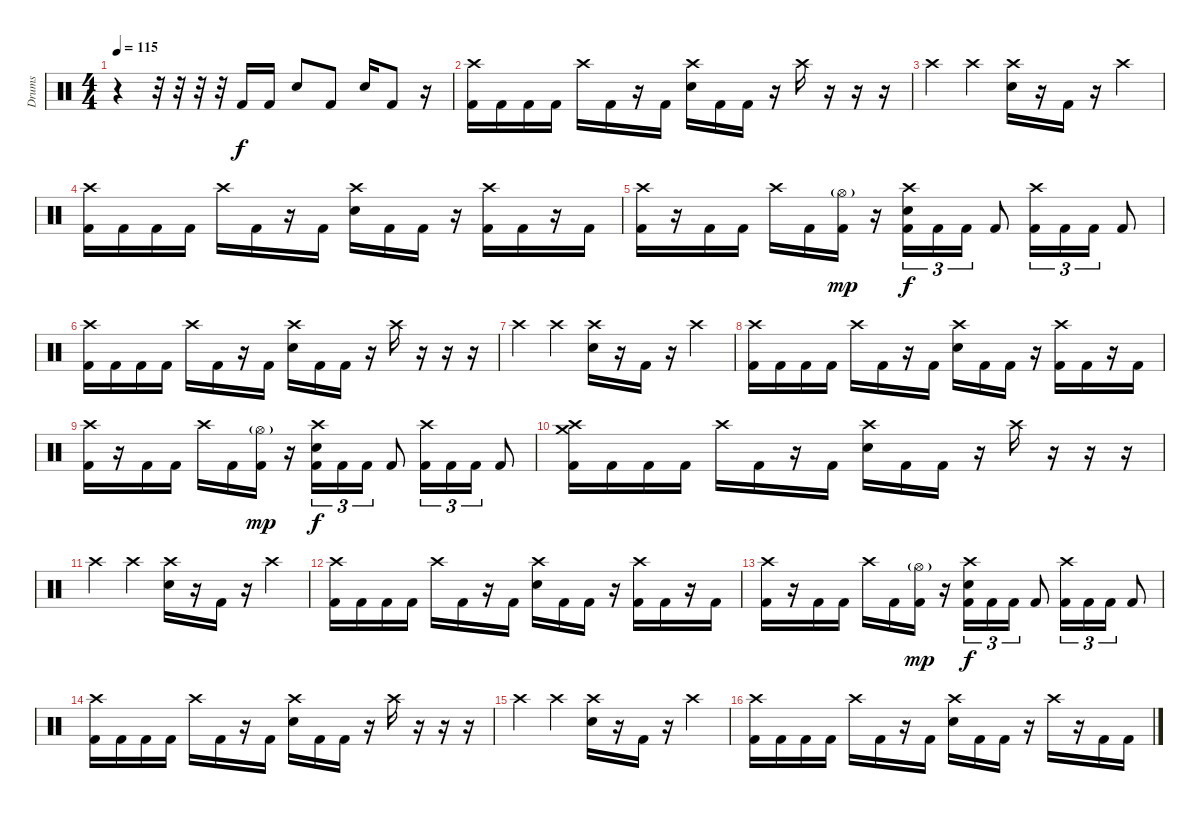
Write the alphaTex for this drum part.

\track ("Drums" "Drums") {instrument percussion}
\staff {score}
\articulation defaults
\ts (4 4)
\tempo 115
\clef neutral
\ks c
r.4{dy f} r.32 r.32 r.32 r.32 "Kick (hit) 2".16 "Kick (hit) 2".16 "Snare (hit) 2".8 "Kick (hit) 2".8 "Snare (hit) 2".16 "Kick (hit) 2".8 r.16 |
("Crash high (hit)" "Kick (hit) 2").16 "Kick (hit) 2".16 "Kick (hit) 2".16 "Kick (hit) 2".16 "Crash high (hit)".16 "Kick (hit) 2".16 r.16 "Kick (hit) 2".16 ("Crash high (hit)" "Snare (hit) 2").16 "Kick (hit) 2".16 "Kick (hit) 2".16 r.16 "Crash high (hit)".16 r.16 r.16 r.16 |
"Crash high (hit)".4 "Crash high (hit)".4 ("Crash high (hit)" "Snare (hit) 2").16 r.16 "Kick (hit) 2".16 r.16 "Crash high (hit)".4 |
("Crash high (hit)" "Kick (hit) 2").16 "Kick (hit) 2".16 "Kick (hit) 2".16 "Kick (hit) 2".16 "Crash high (hit)".16 "Kick (hit) 2".16 r.16 "Kick (hit) 2".16 ("Crash high (hit)" "Snare (hit) 2").16 "Kick (hit) 2".16 "Kick (hit) 2".16 r.16 ("Crash high (hit)" "Kick (hit) 2").16 "Kick (hit) 2".16 r.16 "Kick (hit) 2".16 |
("Crash high (hit)" "Kick (hit) 2").16 r.16 "Kick (hit) 2".16 "Kick (hit) 2".16 "Crash high (hit)".16 "Kick (hit) 2".16 ("Hi-Hat (open)"{g} "Kick (hit) 2").16{dy mp} r.16 ("Crash high (hit)" "Snare (hit) 2" "Kick (hit) 2").16{tu (3 2) dy f} "Kick (hit) 2".16{tu (3 2)} "Kick (hit) 2".16{tu (3 2)} "Kick (hit) 2".8 ("Crash high (hit)" "Kick (hit) 2").16{tu (3 2)} "Kick (hit) 2".16{tu (3 2)} "Kick (hit) 2".16{tu (3 2)} "Kick (hit) 2".8 |
("Crash high (hit)" "Kick (hit) 2").16 "Kick (hit) 2".16 "Kick (hit) 2".16 "Kick (hit) 2".16 "Crash high (hit)".16 "Kick (hit) 2".16 r.16 "Kick (hit) 2".16 ("Crash high (hit)" "Snare (hit) 2").16 "Kick (hit) 2".16 "Kick (hit) 2".16 r.16 "Crash high (hit)".16 r.16 r.16 r.16 |
"Crash high (hit)".4 "Crash high (hit)".4 ("Crash high (hit)" "Snare (hit) 2").16 r.16 "Kick (hit) 2".16 r.16 "Crash high (hit)".4 |
("Crash high (hit)" "Kick (hit) 2").16 "Kick (hit) 2".16 "Kick (hit) 2".16 "Kick (hit) 2".16 "Crash high (hit)".16 "Kick (hit) 2".16 r.16 "Kick (hit) 2".16 ("Crash high (hit)" "Snare (hit) 2").16 "Kick (hit) 2".16 "Kick (hit) 2".16 r.16 ("Crash high (hit)" "Kick (hit) 2").16 "Kick (hit) 2".16 r.16 "Kick (hit) 2".16 |
("Crash high (hit)" "Kick (hit) 2").16 r.16 "Kick (hit) 2".16 "Kick (hit) 2".16 "Crash high (hit)".16 "Kick (hit) 2".16 ("Hi-Hat (open)"{g} "Kick (hit) 2").16{dy mp} r.16 ("Crash high (hit)" "Snare (hit) 2" "Kick (hit) 2").16{tu (3 2) dy f} "Kick (hit) 2".16{tu (3 2)} "Kick (hit) 2".16{tu (3 2)} "Kick (hit) 2".8 ("Crash high (hit)" "Kick (hit) 2").16{tu (3 2)} "Kick (hit) 2".16{tu (3 2)} "Kick (hit) 2".16{tu (3 2)} "Kick (hit) 2".8 |
("Crash high (hit)" "Crash medium (hit)" "Kick (hit) 2").16 "Kick (hit) 2".16 "Kick (hit) 2".16 "Kick (hit) 2".16 "Crash high (hit)".16 "Kick (hit) 2".16 r.16 "Kick (hit) 2".16 ("Crash high (hit)" "Snare (hit) 2").16 "Kick (hit) 2".16 "Kick (hit) 2".16 r.16 "Crash high (hit)".16 r.16 r.16 r.16 |
"Crash high (hit)".4 "Crash high (hit)".4 ("Crash high (hit)" "Snare (hit) 2").16 r.16 "Kick (hit) 2".16 r.16 "Crash high (hit)".4 |
("Crash high (hit)" "Kick (hit) 2").16 "Kick (hit) 2".16 "Kick (hit) 2".16 "Kick (hit) 2".16 "Crash high (hit)".16 "Kick (hit) 2".16 r.16 "Kick (hit) 2".16 ("Crash high (hit)" "Snare (hit) 2").16 "Kick (hit) 2".16 "Kick (hit) 2".16 r.16 ("Crash high (hit)" "Kick (hit) 2").16 "Kick (hit) 2".16 r.16 "Kick (hit) 2".16 |
("Crash high (hit)" "Kick (hit) 2").16 r.16 "Kick (hit) 2".16 "Kick (hit) 2".16 "Crash high (hit)".16 "Kick (hit) 2".16 ("Hi-Hat (open)"{g} "Kick (hit) 2").16{dy mp} r.16 ("Crash high (hit)" "Snare (hit) 2" "Kick (hit) 2").16{tu (3 2) dy f} "Kick (hit) 2".16{tu (3 2)} "Kick (hit) 2".16{tu (3 2)} "Kick (hit) 2".8 ("Crash high (hit)" "Kick (hit) 2").16{tu (3 2)} "Kick (hit) 2".16{tu (3 2)} "Kick (hit) 2".16{tu (3 2)} "Kick (hit) 2".8 |
("Crash high (hit)" "Kick (hit) 2").16 "Kick (hit) 2".16 "Kick (hit) 2".16 "Kick (hit) 2".16 "Crash high (hit)".16 "Kick (hit) 2".16 r.16 "Kick (hit) 2".16 ("Crash high (hit)" "Snare (hit) 2").16 "Kick (hit) 2".16 "Kick (hit) 2".16 r.16 "Crash high (hit)".16 r.16 r.16 r.16 |
"Crash high (hit)".4 "Crash high (hit)".4 ("Crash high (hit)" "Snare (hit) 2").16 r.16 "Kick (hit) 2".16 r.16 "Crash high (hit)".4 |
("Crash high (hit)" "Kick (hit) 2").16 "Kick (hit) 2".16 "Kick (hit) 2".16 "Kick (hit) 2".16 "Crash high (hit)".16 "Kick (hit) 2".16 r.16 "Kick (hit) 2".16 ("Crash high (hit)" "Snare (hit) 2").16 "Kick (hit) 2".16 "Kick (hit) 2".16 r.16 "Crash high (hit)".16 r.16 "Kick (hit) 2".16 "Kick (hit) 2".16
